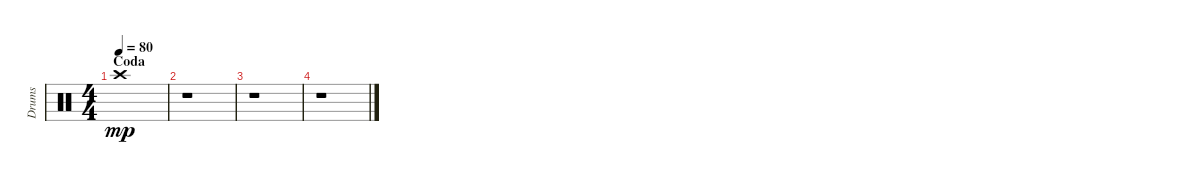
\track ("Drums" "Drums") {instrument percussion}
\staff {score}
\articulation defaults
\ts (4 4)
\section ("" "Coda")
\tempo 80
\clef neutral
\ks c "Crash high (hit)".1{dy mp}
|
r.1 |
r.1 |
r.1
